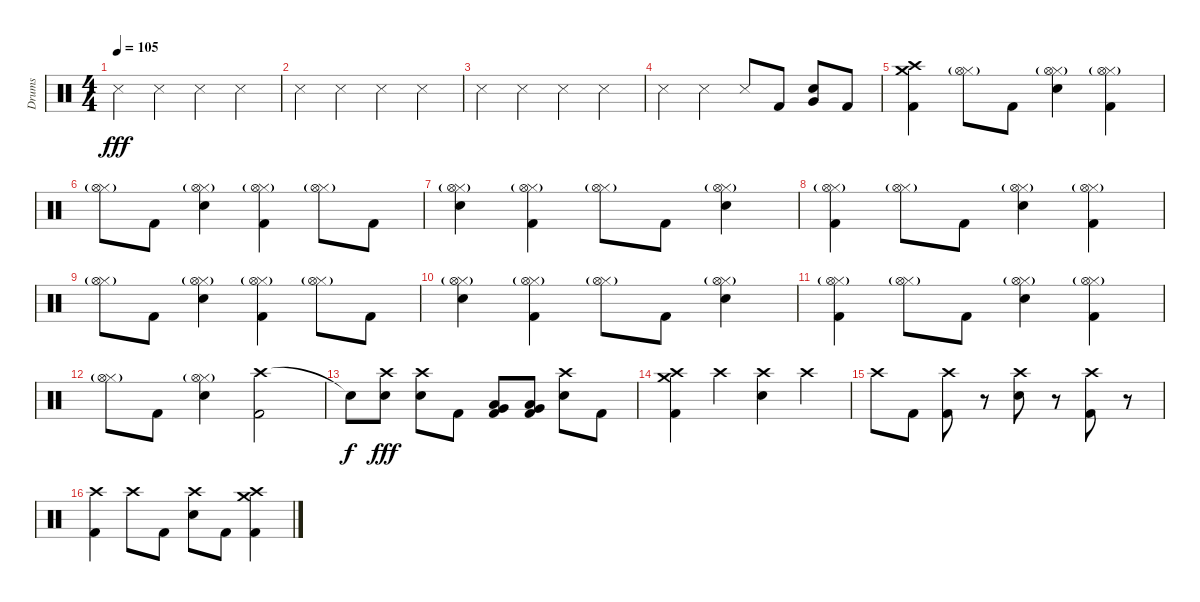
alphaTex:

\track ("Drums" "Drums") {instrument percussion}
\staff {score}
\articulation defaults
\ts (4 4)
\tempo 105
\clef neutral
\ks c "Snare (side stick) 3".4{dy fff} "Snare (side stick) 3".4 "Snare (side stick) 3".4 "Snare (side stick) 3".4
|
"Snare (side stick) 3".4 "Snare (side stick) 3".4 "Snare (side stick) 3".4 "Snare (side stick) 3".4 |
"Snare (side stick) 3".4 "Snare (side stick) 3".4 "Snare (side stick) 3".4 "Snare (side stick) 3".4 |
"Snare (side stick) 3".4 "Snare (side stick) 3".4 "Snare (side stick) 3".8 "Kick (hit) 2".8 ("Electric Snare (hit)" "Very Low Tom (hit)").8 "Kick (hit) 2".8 |
("Crash high (hit)" "Crash medium (hit)" "Kick (hit) 2").4 ("Hi-Hat (closed)" "Hi-Hat (open)"{g}).8 "Kick (hit) 2".8 ("Hi-Hat (closed)" "Hi-Hat (open)"{g} "Electric Snare (hit)").4 ("Hi-Hat (closed)" "Hi-Hat (open)"{g} "Kick (hit) 2").4 |
("Hi-Hat (closed)" "Hi-Hat (open)"{g}).8 "Kick (hit) 2".8 ("Hi-Hat (closed)" "Hi-Hat (open)"{g} "Electric Snare (hit)").4 ("Hi-Hat (closed)" "Hi-Hat (open)"{g} "Kick (hit) 2").4 ("Hi-Hat (closed)" "Hi-Hat (open)"{g}).8 "Kick (hit) 2".8 |
("Hi-Hat (closed)" "Hi-Hat (open)"{g} "Electric Snare (hit)").4 ("Hi-Hat (closed)" "Hi-Hat (open)"{g} "Kick (hit) 2").4 ("Hi-Hat (closed)" "Hi-Hat (open)"{g}).8 "Kick (hit) 2".8 ("Hi-Hat (closed)" "Hi-Hat (open)"{g} "Electric Snare (hit)").4 |
("Hi-Hat (closed)" "Hi-Hat (open)"{g} "Kick (hit) 2").4 ("Hi-Hat (closed)" "Hi-Hat (open)"{g}).8 "Kick (hit) 2".8 ("Hi-Hat (closed)" "Hi-Hat (open)"{g} "Electric Snare (hit)").4 ("Hi-Hat (closed)" "Hi-Hat (open)"{g} "Kick (hit) 2").4 |
("Hi-Hat (closed)" "Hi-Hat (open)"{g}).8 "Kick (hit) 2".8 ("Hi-Hat (closed)" "Hi-Hat (open)"{g} "Electric Snare (hit)").4 ("Hi-Hat (closed)" "Hi-Hat (open)"{g} "Kick (hit) 2").4 ("Hi-Hat (closed)" "Hi-Hat (open)"{g}).8 "Kick (hit) 2".8 |
("Hi-Hat (closed)" "Hi-Hat (open)"{g} "Electric Snare (hit)").4 ("Hi-Hat (closed)" "Hi-Hat (open)"{g} "Kick (hit) 2").4 ("Hi-Hat (closed)" "Hi-Hat (open)"{g}).8 "Kick (hit) 2".8 ("Hi-Hat (closed)" "Hi-Hat (open)"{g} "Electric Snare (hit)").4 |
("Hi-Hat (closed)" "Hi-Hat (open)"{g} "Kick (hit) 2").4 ("Hi-Hat (closed)" "Hi-Hat (open)"{g}).8 "Kick (hit) 2".8 ("Hi-Hat (closed)" "Hi-Hat (open)"{g} "Electric Snare (hit)").4 ("Hi-Hat (closed)" "Hi-Hat (open)"{g} "Kick (hit) 2").4 |
("Hi-Hat (closed)" "Hi-Hat (open)"{g}).8 "Kick (hit) 2".8 ("Hi-Hat (closed)" "Hi-Hat (open)"{g} "Electric Snare (hit)").4 ("Crash high (hit)" "Kick (hit) 2").2 |
"Snare (hit)"{t}.8{dy f} ("Crash high (hit)" "Electric Snare (hit)").8{dy fff} ("Crash high (hit)" "Electric Snare (hit)").8 "Kick (hit) 2".8 ("Very Low Tom (hit)" "Low Floor Tom (hit)" "Kick (hit) 2").8 ("Low Tom (hit)" "Very Low Tom (hit)" "Kick (hit) 2").8 ("Crash high (hit)" "Electric Snare (hit)").8 "Kick (hit) 2".8 |
("Crash high (hit)" "Crash medium (hit)" "Kick (hit) 2").4 "Crash high (hit)".4 ("Crash high (hit)" "Electric Snare (hit)").4 "Crash high (hit)".4 |
"Crash high (hit)".8 "Kick (hit) 2".8 ("Crash high (hit)" "Kick (hit) 2").8 r.8 ("Crash high (hit)" "Electric Snare (hit)").8 r.8 ("Crash high (hit)" "Kick (hit) 2").8 r.8 |
("Crash high (hit)" "Kick (hit) 2").4 "Crash high (hit)".8 "Kick (hit) 2".8 ("Crash high (hit)" "Electric Snare (hit)").8 "Kick (hit) 2".8 ("Crash high (hit)" "Crash medium (hit)" "Kick (hit) 2").4
